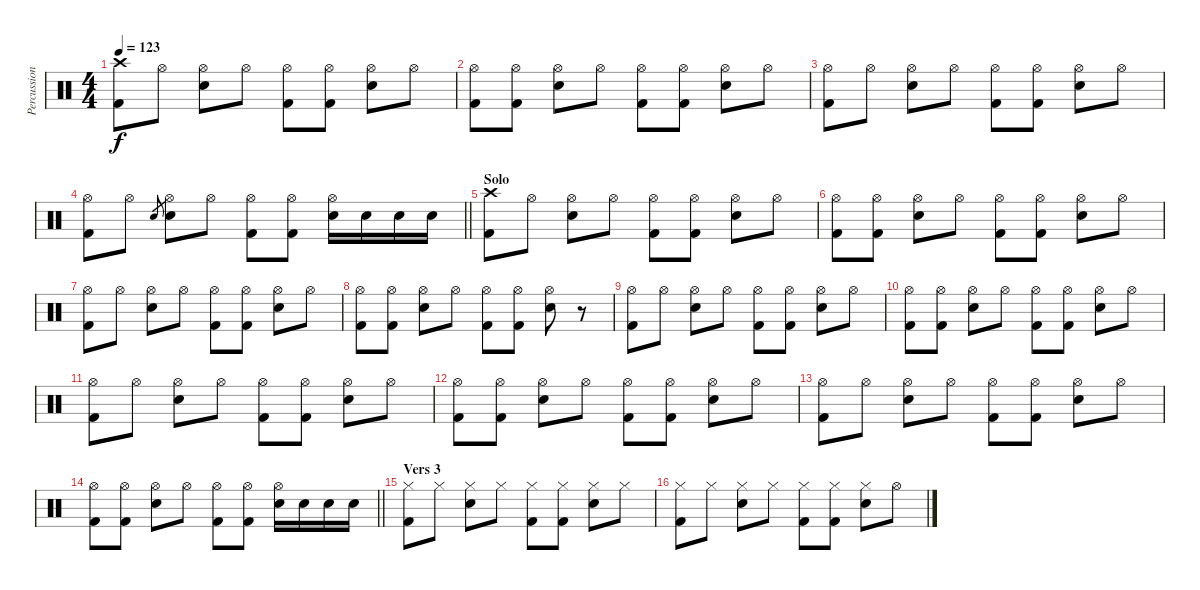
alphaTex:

\track ("Percussion" "Percussion") {instrument percussion}
\staff {score}
\articulation defaults
\ts (4 4)
\tempo 123
\clef neutral
\ks c
("Crash high (hit)" "Kick (hit) 2").8{dy f} "Hi-Hat (open)".8 ("Hi-Hat (open)" "Snare (hit) 2").8 "Hi-Hat (open)".8 ("Hi-Hat (open)" "Kick (hit) 2").8 ("Hi-Hat (open)" "Kick (hit) 2").8 ("Hi-Hat (open)" "Snare (hit) 2").8 "Hi-Hat (open)".8 |
("Hi-Hat (open)" "Kick (hit) 2").8 ("Hi-Hat (open)" "Kick (hit) 2").8 ("Hi-Hat (open)" "Snare (hit) 2").8 "Hi-Hat (open)".8 ("Hi-Hat (open)" "Kick (hit) 2").8 ("Hi-Hat (open)" "Kick (hit) 2").8 ("Hi-Hat (open)" "Snare (hit) 2").8 "Hi-Hat (open)".8 |
("Hi-Hat (open)" "Kick (hit) 2").8 "Hi-Hat (open)".8 ("Hi-Hat (open)" "Snare (hit) 2").8 "Hi-Hat (open)".8 ("Hi-Hat (open)" "Kick (hit) 2").8 ("Hi-Hat (open)" "Kick (hit) 2").8 ("Hi-Hat (open)" "Snare (hit) 2").8 "Hi-Hat (open)".8 |
\barLineRight lightlight
("Hi-Hat (open)" "Kick (hit) 2").8 "Hi-Hat (open)".8 "Snare (hit) 2".8{gr} ("Hi-Hat (open)" "Snare (hit) 2").8 "Hi-Hat (open)".8 ("Hi-Hat (open)" "Kick (hit) 2").8 ("Hi-Hat (open)" "Kick (hit) 2").8 ("Hi-Hat (open)" "Snare (hit) 2").16 "Snare (hit) 2".16 "Snare (hit) 2".16 "Snare (hit) 2".16 |
\section ("" "Solo")
("Crash high (hit)" "Kick (hit) 2").8 "Hi-Hat (open)".8 ("Hi-Hat (open)" "Snare (hit) 2").8 "Hi-Hat (open)".8 ("Hi-Hat (open)" "Kick (hit) 2").8 ("Hi-Hat (open)" "Kick (hit) 2").8 ("Hi-Hat (open)" "Snare (hit) 2").8 "Hi-Hat (open)".8 |
("Hi-Hat (open)" "Kick (hit) 2").8 ("Hi-Hat (open)" "Kick (hit) 2").8 ("Hi-Hat (open)" "Snare (hit) 2").8 "Hi-Hat (open)".8 ("Hi-Hat (open)" "Kick (hit) 2").8 ("Hi-Hat (open)" "Kick (hit) 2").8 ("Hi-Hat (open)" "Snare (hit) 2").8 "Hi-Hat (open)".8 |
("Hi-Hat (open)" "Kick (hit) 2").8 "Hi-Hat (open)".8 ("Hi-Hat (open)" "Snare (hit) 2").8 "Hi-Hat (open)".8 ("Hi-Hat (open)" "Kick (hit) 2").8 ("Hi-Hat (open)" "Kick (hit) 2").8 ("Hi-Hat (open)" "Snare (hit) 2").8 "Hi-Hat (open)".8 |
("Hi-Hat (open)" "Kick (hit) 2").8 ("Hi-Hat (open)" "Kick (hit) 2").8 ("Hi-Hat (open)" "Snare (hit) 2").8 "Hi-Hat (open)".8 ("Hi-Hat (open)" "Kick (hit) 2").8 ("Hi-Hat (open)" "Kick (hit) 2").8 ("Hi-Hat (open)" "Snare (hit) 2").8 r.8 |
("Hi-Hat (open)" "Kick (hit) 2").8 "Hi-Hat (open)".8 ("Hi-Hat (open)" "Snare (hit) 2").8 "Hi-Hat (open)".8 ("Hi-Hat (open)" "Kick (hit) 2").8 ("Hi-Hat (open)" "Kick (hit) 2").8 ("Hi-Hat (open)" "Snare (hit) 2").8 "Hi-Hat (open)".8 |
("Hi-Hat (open)" "Kick (hit) 2").8 ("Hi-Hat (open)" "Kick (hit) 2").8 ("Hi-Hat (open)" "Snare (hit) 2").8 "Hi-Hat (open)".8 ("Hi-Hat (open)" "Kick (hit) 2").8 ("Hi-Hat (open)" "Kick (hit) 2").8 ("Hi-Hat (open)" "Snare (hit) 2").8 "Hi-Hat (open)".8 |
("Hi-Hat (open)" "Kick (hit) 2").8 "Hi-Hat (open)".8 ("Hi-Hat (open)" "Snare (hit) 2").8 "Hi-Hat (open)".8 ("Hi-Hat (open)" "Kick (hit) 2").8 ("Hi-Hat (open)" "Kick (hit) 2").8 ("Hi-Hat (open)" "Snare (hit) 2").8 "Hi-Hat (open)".8 |
("Hi-Hat (open)" "Kick (hit) 2").8 ("Hi-Hat (open)" "Kick (hit) 2").8 ("Hi-Hat (open)" "Snare (hit) 2").8 "Hi-Hat (open)".8 ("Hi-Hat (open)" "Kick (hit) 2").8 ("Hi-Hat (open)" "Kick (hit) 2").8 ("Hi-Hat (open)" "Snare (hit) 2").8 "Hi-Hat (open)".8 |
("Hi-Hat (open)" "Kick (hit) 2").8 "Hi-Hat (open)".8 ("Hi-Hat (open)" "Snare (hit) 2").8 "Hi-Hat (open)".8 ("Hi-Hat (open)" "Kick (hit) 2").8 ("Hi-Hat (open)" "Kick (hit) 2").8 ("Hi-Hat (open)" "Snare (hit) 2").8 "Hi-Hat (open)".8 |
\barLineRight lightlight
("Hi-Hat (open)" "Kick (hit) 2").8 ("Hi-Hat (open)" "Kick (hit) 2").8 ("Hi-Hat (open)" "Snare (hit) 2").8 "Hi-Hat (open)".8 ("Hi-Hat (open)" "Kick (hit) 2").8 ("Hi-Hat (open)" "Kick (hit) 2").8 ("Hi-Hat (open)" "Snare (hit) 2").16 "Snare (hit) 2".16 "Snare (hit) 2".16 "Snare (hit) 2".16 |
\section ("" "Vers 3")
("Hi-Hat (closed)" "Kick (hit) 2").8 "Hi-Hat (closed)".8 ("Hi-Hat (closed)" "Snare (hit) 2").8 "Hi-Hat (closed)".8 ("Hi-Hat (closed)" "Kick (hit) 2").8 ("Hi-Hat (closed)" "Kick (hit) 2").8 ("Hi-Hat (closed)" "Snare (hit) 2").8 "Hi-Hat (closed)".8 |
("Hi-Hat (closed)" "Kick (hit) 2").8 "Hi-Hat (closed)".8 ("Hi-Hat (closed)" "Snare (hit) 2").8 "Hi-Hat (closed)".8 ("Hi-Hat (closed)" "Kick (hit) 2").8 ("Hi-Hat (closed)" "Kick (hit) 2").8 ("Hi-Hat (closed)" "Snare (hit) 2").8 "Hi-Hat (open)".8
